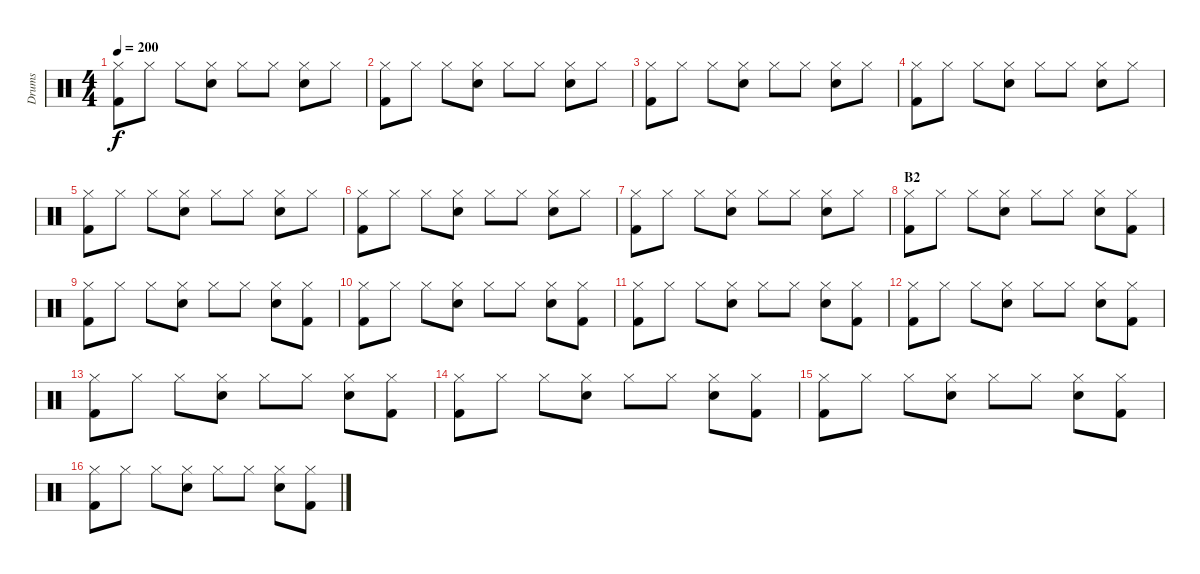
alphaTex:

\track ("Drums" "Drums") {instrument percussion}
\staff {score}
\articulation defaults
\ts (4 4)
\tempo 200
\clef neutral
\ks c
("Hi-Hat (closed)" "Kick (hit) 2").8{dy f} "Hi-Hat (closed)".8 "Hi-Hat (closed)".8 ("Hi-Hat (closed)" "Electric Snare (hit)").8 "Hi-Hat (closed)".8 "Hi-Hat (closed)".8 ("Hi-Hat (closed)" "Electric Snare (hit)").8 "Hi-Hat (closed)".8 |
("Hi-Hat (closed)" "Kick (hit) 2").8 "Hi-Hat (closed)".8 "Hi-Hat (closed)".8 ("Hi-Hat (closed)" "Electric Snare (hit)").8 "Hi-Hat (closed)".8 "Hi-Hat (closed)".8 ("Hi-Hat (closed)" "Electric Snare (hit)").8 "Hi-Hat (closed)".8 |
("Hi-Hat (closed)" "Kick (hit) 2").8 "Hi-Hat (closed)".8 "Hi-Hat (closed)".8 ("Hi-Hat (closed)" "Electric Snare (hit)").8 "Hi-Hat (closed)".8 "Hi-Hat (closed)".8 ("Hi-Hat (closed)" "Electric Snare (hit)").8 "Hi-Hat (closed)".8 |
("Hi-Hat (closed)" "Kick (hit) 2").8 "Hi-Hat (closed)".8 "Hi-Hat (closed)".8 ("Hi-Hat (closed)" "Electric Snare (hit)").8 "Hi-Hat (closed)".8 "Hi-Hat (closed)".8 ("Hi-Hat (closed)" "Electric Snare (hit)").8 "Hi-Hat (closed)".8 |
("Hi-Hat (closed)" "Kick (hit) 2").8 "Hi-Hat (closed)".8 "Hi-Hat (closed)".8 ("Hi-Hat (closed)" "Electric Snare (hit)").8 "Hi-Hat (closed)".8 "Hi-Hat (closed)".8 ("Hi-Hat (closed)" "Electric Snare (hit)").8 "Hi-Hat (closed)".8 |
("Hi-Hat (closed)" "Kick (hit) 2").8 "Hi-Hat (closed)".8 "Hi-Hat (closed)".8 ("Hi-Hat (closed)" "Electric Snare (hit)").8 "Hi-Hat (closed)".8 "Hi-Hat (closed)".8 ("Hi-Hat (closed)" "Electric Snare (hit)").8 "Hi-Hat (closed)".8 |
("Hi-Hat (closed)" "Kick (hit) 2").8 "Hi-Hat (closed)".8 "Hi-Hat (closed)".8 ("Hi-Hat (closed)" "Electric Snare (hit)").8 "Hi-Hat (closed)".8 "Hi-Hat (closed)".8 ("Hi-Hat (closed)" "Electric Snare (hit)").8 "Hi-Hat (closed)".8 |
\section ("" "B2")
("Hi-Hat (closed)" "Kick (hit) 2").8 "Hi-Hat (closed)".8 "Hi-Hat (closed)".8 ("Hi-Hat (closed)" "Electric Snare (hit)").8 "Hi-Hat (closed)".8 "Hi-Hat (closed)".8 ("Hi-Hat (closed)" "Electric Snare (hit)").8 ("Hi-Hat (closed)" "Kick (hit) 2").8 |
("Hi-Hat (closed)" "Kick (hit) 2").8 "Hi-Hat (closed)".8 "Hi-Hat (closed)".8 ("Hi-Hat (closed)" "Electric Snare (hit)").8 "Hi-Hat (closed)".8 "Hi-Hat (closed)".8 ("Hi-Hat (closed)" "Electric Snare (hit)").8 ("Hi-Hat (closed)" "Kick (hit) 2").8 |
("Hi-Hat (closed)" "Kick (hit) 2").8 "Hi-Hat (closed)".8 "Hi-Hat (closed)".8 ("Hi-Hat (closed)" "Electric Snare (hit)").8 "Hi-Hat (closed)".8 "Hi-Hat (closed)".8 ("Hi-Hat (closed)" "Electric Snare (hit)").8 ("Hi-Hat (closed)" "Kick (hit) 2").8 |
("Hi-Hat (closed)" "Kick (hit) 2").8 "Hi-Hat (closed)".8 "Hi-Hat (closed)".8 ("Hi-Hat (closed)" "Electric Snare (hit)").8 "Hi-Hat (closed)".8 "Hi-Hat (closed)".8 ("Hi-Hat (closed)" "Electric Snare (hit)").8 ("Hi-Hat (closed)" "Kick (hit) 2").8 |
("Hi-Hat (closed)" "Kick (hit) 2").8 "Hi-Hat (closed)".8 "Hi-Hat (closed)".8 ("Hi-Hat (closed)" "Electric Snare (hit)").8 "Hi-Hat (closed)".8 "Hi-Hat (closed)".8 ("Hi-Hat (closed)" "Electric Snare (hit)").8 ("Hi-Hat (closed)" "Kick (hit) 2").8 |
("Hi-Hat (closed)" "Kick (hit) 2").8 "Hi-Hat (closed)".8 "Hi-Hat (closed)".8 ("Hi-Hat (closed)" "Electric Snare (hit)").8 "Hi-Hat (closed)".8 "Hi-Hat (closed)".8 ("Hi-Hat (closed)" "Electric Snare (hit)").8 ("Hi-Hat (closed)" "Kick (hit) 2").8 |
("Hi-Hat (closed)" "Kick (hit) 2").8 "Hi-Hat (closed)".8 "Hi-Hat (closed)".8 ("Hi-Hat (closed)" "Electric Snare (hit)").8 "Hi-Hat (closed)".8 "Hi-Hat (closed)".8 ("Hi-Hat (closed)" "Electric Snare (hit)").8 ("Hi-Hat (closed)" "Kick (hit) 2").8 |
("Hi-Hat (closed)" "Kick (hit) 2").8 "Hi-Hat (closed)".8 "Hi-Hat (closed)".8 ("Hi-Hat (closed)" "Electric Snare (hit)").8 "Hi-Hat (closed)".8 "Hi-Hat (closed)".8 ("Hi-Hat (closed)" "Electric Snare (hit)").8 ("Hi-Hat (closed)" "Kick (hit) 2").8 |
("Hi-Hat (closed)" "Kick (hit) 2").8 "Hi-Hat (closed)".8 "Hi-Hat (closed)".8 ("Hi-Hat (closed)" "Electric Snare (hit)").8 "Hi-Hat (closed)".8 "Hi-Hat (closed)".8 ("Hi-Hat (closed)" "Electric Snare (hit)").8 ("Hi-Hat (closed)" "Kick (hit) 2").8
